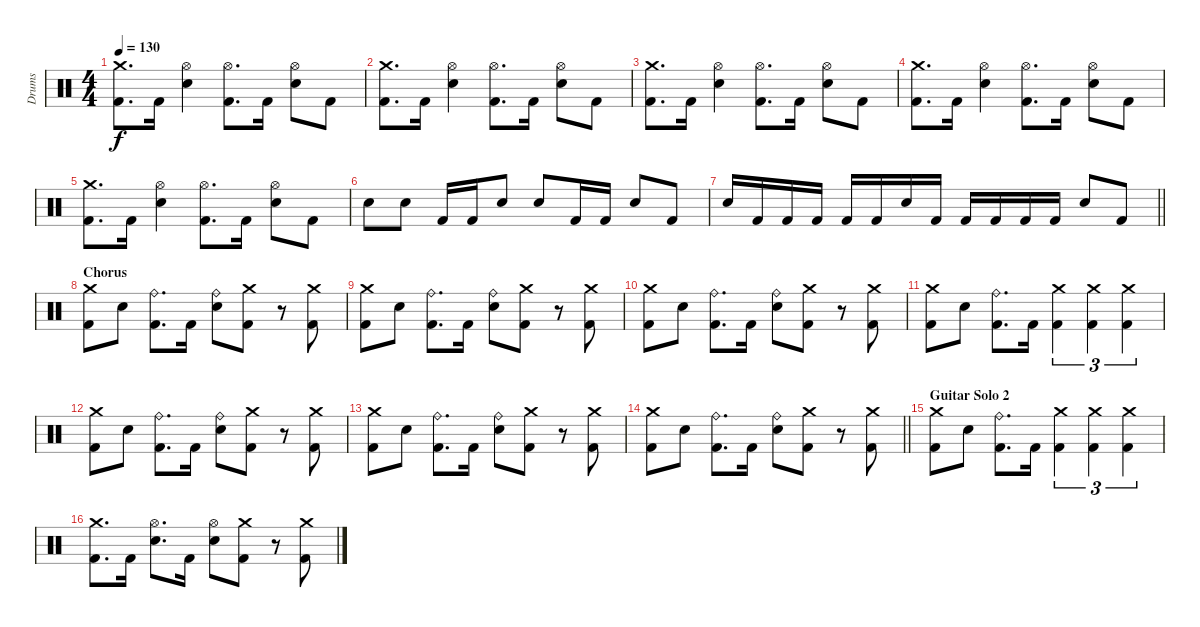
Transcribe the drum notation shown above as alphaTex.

\track ("Drums" "Drums") {instrument percussion}
\staff {score}
\articulation defaults
\ts (4 4)
\tempo 130
\clef neutral
\ks c
("Crash medium (hit)" "Kick (hit) 2").8{d dy f} "Kick (hit) 2".16 ("Hi-Hat (open)" "Snare (hit) 2").4 ("Hi-Hat (open)" "Kick (hit) 2").8{d} "Kick (hit) 2".16 ("Hi-Hat (open)" "Snare (hit) 2").8 "Kick (hit) 2".8 |
("Crash medium (hit)" "Kick (hit) 2").8{d} "Kick (hit) 2".16 ("Hi-Hat (open)" "Snare (hit) 2").4 ("Hi-Hat (open)" "Kick (hit) 2").8{d} "Kick (hit) 2".16 ("Hi-Hat (open)" "Snare (hit) 2").8 "Kick (hit) 2".8 |
("Crash medium (hit)" "Kick (hit) 2").8{d} "Kick (hit) 2".16 ("Hi-Hat (open)" "Snare (hit) 2").4 ("Hi-Hat (open)" "Kick (hit) 2").8{d} "Kick (hit) 2".16 ("Hi-Hat (open)" "Snare (hit) 2").8 "Kick (hit) 2".8 |
("Crash medium (hit)" "Kick (hit) 2").8{d} "Kick (hit) 2".16 ("Hi-Hat (open)" "Snare (hit) 2").4 ("Hi-Hat (open)" "Kick (hit) 2").8{d} "Kick (hit) 2".16 ("Hi-Hat (open)" "Snare (hit) 2").8 "Kick (hit) 2".8 |
("Crash medium (hit)" "Kick (hit) 2").8{d} "Kick (hit) 2".16 ("Hi-Hat (open)" "Snare (hit) 2").4 ("Hi-Hat (open)" "Kick (hit) 2").8{d} "Kick (hit) 2".16 ("Hi-Hat (open)" "Snare (hit) 2").8 "Kick (hit) 2".8 |
"Snare (hit) 2".8 "Snare (hit) 2".8 "Kick (hit) 2".16 "Kick (hit) 2".16 "Snare (hit) 2".8 "Snare (hit) 2".8 "Kick (hit) 2".16 "Kick (hit) 2".16 "Snare (hit) 2".8 "Kick (hit) 2".8 |
\barLineRight lightlight "Snare (hit) 2".16 "Kick (hit) 2".16 "Kick (hit) 2".16 "Kick (hit) 2".16 "Kick (hit) 2".16 "Kick (hit) 2".16 "Snare (hit) 2".16 "Kick (hit) 2".16 "Kick (hit) 2".16 "Kick (hit) 2".16 "Kick (hit) 2".16 "Kick (hit) 2".16 "Snare (hit) 2".8 "Kick (hit) 2".8
|
\section ("" "Chorus")
("Crash medium (hit)" "Kick (hit) 2").8 "Snare (hit) 2".8 ("Ride (bell)" "Kick (hit) 2").8{d} "Kick (hit) 2".16 ("Ride (bell)" "Snare (hit) 2").8 ("Crash medium (hit)" "Kick (hit) 2").8 r.8 ("Crash medium (hit)" "Kick (hit) 2").8 |
("Crash medium (hit)" "Kick (hit) 2").8 "Snare (hit) 2".8 ("Ride (bell)" "Kick (hit) 2").8{d} "Kick (hit) 2".16 ("Ride (bell)" "Snare (hit) 2").8 ("Crash medium (hit)" "Kick (hit) 2").8 r.8 ("Crash medium (hit)" "Kick (hit) 2").8 |
("Crash medium (hit)" "Kick (hit) 2").8 "Snare (hit) 2".8 ("Ride (bell)" "Kick (hit) 2").8{d} "Kick (hit) 2".16 ("Ride (bell)" "Snare (hit) 2").8 ("Crash medium (hit)" "Kick (hit) 2").8 r.8 ("Crash medium (hit)" "Kick (hit) 2").8 |
("Crash medium (hit)" "Kick (hit) 2").8 "Snare (hit) 2".8 ("Ride (bell)" "Kick (hit) 2").8{d} "Kick (hit) 2".16 ("Crash medium (hit)" "Kick (hit) 2").4{tu (3 2)} ("Crash medium (hit)" "Kick (hit) 2").4{tu (3 2)} ("Crash medium (hit)" "Kick (hit) 2").4{tu (3 2)} |
("Crash medium (hit)" "Kick (hit) 2").8 "Snare (hit) 2".8 ("Ride (bell)" "Kick (hit) 2").8{d} "Kick (hit) 2".16 ("Ride (bell)" "Snare (hit) 2").8 ("Crash medium (hit)" "Kick (hit) 2").8 r.8 ("Crash medium (hit)" "Kick (hit) 2").8 |
("Crash medium (hit)" "Kick (hit) 2").8 "Snare (hit) 2".8 ("Ride (bell)" "Kick (hit) 2").8{d} "Kick (hit) 2".16 ("Ride (bell)" "Snare (hit) 2").8 ("Crash medium (hit)" "Kick (hit) 2").8 r.8 ("Crash medium (hit)" "Kick (hit) 2").8 |
\barLineRight lightlight
("Crash medium (hit)" "Kick (hit) 2").8 "Snare (hit) 2".8 ("Ride (bell)" "Kick (hit) 2").8{d} "Kick (hit) 2".16 ("Ride (bell)" "Snare (hit) 2").8 ("Crash medium (hit)" "Kick (hit) 2").8 r.8 ("Crash medium (hit)" "Kick (hit) 2").8 |
\section ("" "Guitar Solo 2")
("Crash medium (hit)" "Kick (hit) 2").8 "Snare (hit) 2".8 ("Ride (bell)" "Kick (hit) 2").8{d} "Kick (hit) 2".16 ("Crash medium (hit)" "Kick (hit) 2").4{tu (3 2)} ("Crash medium (hit)" "Kick (hit) 2").4{tu (3 2)} ("Crash medium (hit)" "Kick (hit) 2").4{tu (3 2)} |
("Crash medium (hit)" "Kick (hit) 2").8{d} "Kick (hit) 2".16 ("Hi-Hat (open)" "Snare (hit) 2").8{d} "Kick (hit) 2".16 ("Hi-Hat (open)" "Snare (hit) 2").8 ("Crash medium (hit)" "Kick (hit) 2").8 r.8 ("Crash medium (hit)" "Kick (hit) 2").8
